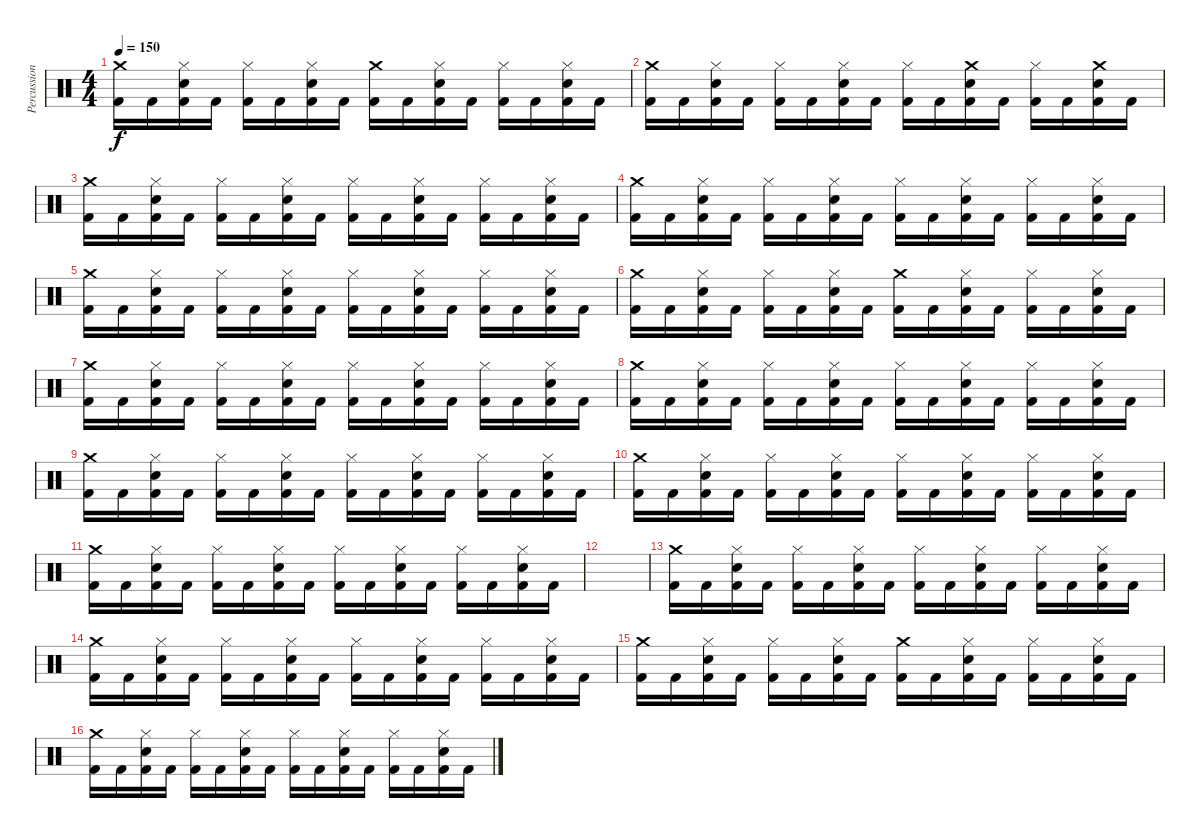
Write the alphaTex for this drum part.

\track ("Percussioni" "Percussion") {instrument percussion}
\staff {score}
\articulation defaults
\ts (4 4)
\tempo 150
\clef neutral
\ks c
("Crash medium (hit)" "Kick (hit) 2").16{dy f} "Kick (hit) 2".16 ("Hi-Hat (closed)" "Electric Snare (hit)" "Kick (hit) 2").16 "Kick (hit) 2".16 ("Hi-Hat (closed)" "Kick (hit) 2").16 "Kick (hit) 2".16 ("Hi-Hat (closed)" "Electric Snare (hit)" "Kick (hit) 2").16 "Kick (hit) 2".16 ("Crash medium (hit)" "Kick (hit) 2").16 "Kick (hit) 2".16 ("Hi-Hat (closed)" "Electric Snare (hit)" "Kick (hit) 2").16 "Kick (hit) 2".16 ("Hi-Hat (closed)" "Kick (hit) 2").16 "Kick (hit) 2".16 ("Hi-Hat (closed)" "Electric Snare (hit)" "Kick (hit) 2").16 "Kick (hit) 2".16 |
("Crash medium (hit)" "Kick (hit) 2").16 "Kick (hit) 2".16 ("Hi-Hat (closed)" "Electric Snare (hit)" "Kick (hit) 2").16 "Kick (hit) 2".16 ("Hi-Hat (closed)" "Kick (hit) 2").16 "Kick (hit) 2".16 ("Hi-Hat (closed)" "Electric Snare (hit)" "Kick (hit) 2").16 "Kick (hit) 2".16 ("Hi-Hat (closed)" "Kick (hit) 2").16 "Kick (hit) 2".16 ("Crash medium (hit)" "Electric Snare (hit)" "Kick (hit) 2").16 "Kick (hit) 2".16 ("Hi-Hat (closed)" "Kick (hit) 2").16 "Kick (hit) 2".16 ("Crash medium (hit)" "Electric Snare (hit)" "Kick (hit) 2").16 "Kick (hit) 2".16 |
("Crash medium (hit)" "Kick (hit) 2").16 "Kick (hit) 2".16 ("Hi-Hat (closed)" "Electric Snare (hit)" "Kick (hit) 2").16 "Kick (hit) 2".16 ("Hi-Hat (closed)" "Kick (hit) 2").16 "Kick (hit) 2".16 ("Hi-Hat (closed)" "Electric Snare (hit)" "Kick (hit) 2").16 "Kick (hit) 2".16 ("Hi-Hat (closed)" "Kick (hit) 2").16 "Kick (hit) 2".16 ("Hi-Hat (closed)" "Electric Snare (hit)" "Kick (hit) 2").16 "Kick (hit) 2".16 ("Hi-Hat (closed)" "Kick (hit) 2").16 "Kick (hit) 2".16 ("Hi-Hat (closed)" "Electric Snare (hit)" "Kick (hit) 2").16 "Kick (hit) 2".16 |
("Crash medium (hit)" "Kick (hit) 2").16 "Kick (hit) 2".16 ("Hi-Hat (closed)" "Electric Snare (hit)" "Kick (hit) 2").16 "Kick (hit) 2".16 ("Hi-Hat (closed)" "Kick (hit) 2").16 "Kick (hit) 2".16 ("Hi-Hat (closed)" "Electric Snare (hit)" "Kick (hit) 2").16 "Kick (hit) 2".16 ("Hi-Hat (closed)" "Kick (hit) 2").16 "Kick (hit) 2".16 ("Hi-Hat (closed)" "Electric Snare (hit)" "Kick (hit) 2").16 "Kick (hit) 2".16 ("Hi-Hat (closed)" "Kick (hit) 2").16 "Kick (hit) 2".16 ("Hi-Hat (closed)" "Electric Snare (hit)" "Kick (hit) 2").16 "Kick (hit) 2".16 |
("Crash medium (hit)" "Kick (hit) 2").16 "Kick (hit) 2".16 ("Hi-Hat (closed)" "Electric Snare (hit)" "Kick (hit) 2").16 "Kick (hit) 2".16 ("Hi-Hat (closed)" "Kick (hit) 2").16 "Kick (hit) 2".16 ("Hi-Hat (closed)" "Electric Snare (hit)" "Kick (hit) 2").16 "Kick (hit) 2".16 ("Hi-Hat (closed)" "Kick (hit) 2").16 "Kick (hit) 2".16 ("Hi-Hat (closed)" "Electric Snare (hit)" "Kick (hit) 2").16 "Kick (hit) 2".16 ("Hi-Hat (closed)" "Kick (hit) 2").16 "Kick (hit) 2".16 ("Hi-Hat (closed)" "Electric Snare (hit)" "Kick (hit) 2").16 "Kick (hit) 2".16 |
("Crash medium (hit)" "Kick (hit) 2").16 "Kick (hit) 2".16 ("Hi-Hat (closed)" "Electric Snare (hit)" "Kick (hit) 2").16 "Kick (hit) 2".16 ("Hi-Hat (closed)" "Kick (hit) 2").16 "Kick (hit) 2".16 ("Hi-Hat (closed)" "Electric Snare (hit)" "Kick (hit) 2").16 "Kick (hit) 2".16 ("Crash medium (hit)" "Kick (hit) 2").16 "Kick (hit) 2".16 ("Hi-Hat (closed)" "Electric Snare (hit)" "Kick (hit) 2").16 "Kick (hit) 2".16 ("Hi-Hat (closed)" "Kick (hit) 2").16 "Kick (hit) 2".16 ("Hi-Hat (closed)" "Electric Snare (hit)" "Kick (hit) 2").16 "Kick (hit) 2".16 |
("Crash medium (hit)" "Kick (hit) 2").16 "Kick (hit) 2".16 ("Hi-Hat (closed)" "Electric Snare (hit)" "Kick (hit) 2").16 "Kick (hit) 2".16 ("Hi-Hat (closed)" "Kick (hit) 2").16 "Kick (hit) 2".16 ("Hi-Hat (closed)" "Electric Snare (hit)" "Kick (hit) 2").16 "Kick (hit) 2".16 ("Hi-Hat (closed)" "Kick (hit) 2").16 "Kick (hit) 2".16 ("Hi-Hat (closed)" "Electric Snare (hit)" "Kick (hit) 2").16 "Kick (hit) 2".16 ("Hi-Hat (closed)" "Kick (hit) 2").16 "Kick (hit) 2".16 ("Hi-Hat (closed)" "Electric Snare (hit)" "Kick (hit) 2").16 "Kick (hit) 2".16 |
("Crash medium (hit)" "Kick (hit) 2").16 "Kick (hit) 2".16 ("Hi-Hat (closed)" "Electric Snare (hit)" "Kick (hit) 2").16 "Kick (hit) 2".16 ("Hi-Hat (closed)" "Kick (hit) 2").16 "Kick (hit) 2".16 ("Hi-Hat (closed)" "Electric Snare (hit)" "Kick (hit) 2").16 "Kick (hit) 2".16 ("Hi-Hat (closed)" "Kick (hit) 2").16 "Kick (hit) 2".16 ("Hi-Hat (closed)" "Electric Snare (hit)" "Kick (hit) 2").16 "Kick (hit) 2".16 ("Hi-Hat (closed)" "Kick (hit) 2").16 "Kick (hit) 2".16 ("Hi-Hat (closed)" "Electric Snare (hit)" "Kick (hit) 2").16 "Kick (hit) 2".16 |
("Crash medium (hit)" "Kick (hit) 2").16 "Kick (hit) 2".16 ("Hi-Hat (closed)" "Electric Snare (hit)" "Kick (hit) 2").16 "Kick (hit) 2".16 ("Hi-Hat (closed)" "Kick (hit) 2").16 "Kick (hit) 2".16 ("Hi-Hat (closed)" "Electric Snare (hit)" "Kick (hit) 2").16 "Kick (hit) 2".16 ("Hi-Hat (closed)" "Kick (hit) 2").16 "Kick (hit) 2".16 ("Hi-Hat (closed)" "Electric Snare (hit)" "Kick (hit) 2").16 "Kick (hit) 2".16 ("Hi-Hat (closed)" "Kick (hit) 2").16 "Kick (hit) 2".16 ("Hi-Hat (closed)" "Electric Snare (hit)" "Kick (hit) 2").16 "Kick (hit) 2".16 |
("Crash medium (hit)" "Kick (hit) 2").16 "Kick (hit) 2".16 ("Hi-Hat (closed)" "Electric Snare (hit)" "Kick (hit) 2").16 "Kick (hit) 2".16 ("Hi-Hat (closed)" "Kick (hit) 2").16 "Kick (hit) 2".16 ("Hi-Hat (closed)" "Electric Snare (hit)" "Kick (hit) 2").16 "Kick (hit) 2".16 ("Hi-Hat (closed)" "Kick (hit) 2").16 "Kick (hit) 2".16 ("Hi-Hat (closed)" "Electric Snare (hit)" "Kick (hit) 2").16 "Kick (hit) 2".16 ("Hi-Hat (closed)" "Kick (hit) 2").16 "Kick (hit) 2".16 ("Hi-Hat (closed)" "Electric Snare (hit)" "Kick (hit) 2").16 "Kick (hit) 2".16 |
("Crash medium (hit)" "Kick (hit) 2").16 "Kick (hit) 2".16 ("Hi-Hat (closed)" "Electric Snare (hit)" "Kick (hit) 2").16 "Kick (hit) 2".16 ("Hi-Hat (closed)" "Kick (hit) 2").16 "Kick (hit) 2".16 ("Hi-Hat (closed)" "Electric Snare (hit)" "Kick (hit) 2").16 "Kick (hit) 2".16 ("Hi-Hat (closed)" "Kick (hit) 2").16 "Kick (hit) 2".16 ("Hi-Hat (closed)" "Electric Snare (hit)" "Kick (hit) 2").16 "Kick (hit) 2".16 ("Hi-Hat (closed)" "Kick (hit) 2").16 "Kick (hit) 2".16 ("Hi-Hat (closed)" "Electric Snare (hit)" "Kick (hit) 2").16 "Kick (hit) 2".16 |
|
("Crash medium (hit)" "Kick (hit) 2").16 "Kick (hit) 2".16 ("Hi-Hat (closed)" "Electric Snare (hit)" "Kick (hit) 2").16 "Kick (hit) 2".16 ("Hi-Hat (closed)" "Kick (hit) 2").16 "Kick (hit) 2".16 ("Hi-Hat (closed)" "Electric Snare (hit)" "Kick (hit) 2").16 "Kick (hit) 2".16 ("Hi-Hat (closed)" "Kick (hit) 2").16 "Kick (hit) 2".16 ("Hi-Hat (closed)" "Electric Snare (hit)" "Kick (hit) 2").16 "Kick (hit) 2".16 ("Hi-Hat (closed)" "Kick (hit) 2").16 "Kick (hit) 2".16 ("Hi-Hat (closed)" "Electric Snare (hit)" "Kick (hit) 2").16 "Kick (hit) 2".16 |
("Crash medium (hit)" "Kick (hit) 2").16 "Kick (hit) 2".16 ("Hi-Hat (closed)" "Electric Snare (hit)" "Kick (hit) 2").16 "Kick (hit) 2".16 ("Hi-Hat (closed)" "Kick (hit) 2").16 "Kick (hit) 2".16 ("Hi-Hat (closed)" "Electric Snare (hit)" "Kick (hit) 2").16 "Kick (hit) 2".16 ("Hi-Hat (closed)" "Kick (hit) 2").16 "Kick (hit) 2".16 ("Hi-Hat (closed)" "Electric Snare (hit)" "Kick (hit) 2").16 "Kick (hit) 2".16 ("Hi-Hat (closed)" "Kick (hit) 2").16 "Kick (hit) 2".16 ("Hi-Hat (closed)" "Electric Snare (hit)" "Kick (hit) 2").16 "Kick (hit) 2".16 |
("Crash medium (hit)" "Kick (hit) 2").16 "Kick (hit) 2".16 ("Hi-Hat (closed)" "Electric Snare (hit)" "Kick (hit) 2").16 "Kick (hit) 2".16 ("Hi-Hat (closed)" "Kick (hit) 2").16 "Kick (hit) 2".16 ("Hi-Hat (closed)" "Electric Snare (hit)" "Kick (hit) 2").16 "Kick (hit) 2".16 ("Crash medium (hit)" "Kick (hit) 2").16 "Kick (hit) 2".16 ("Hi-Hat (closed)" "Electric Snare (hit)" "Kick (hit) 2").16 "Kick (hit) 2".16 ("Hi-Hat (closed)" "Kick (hit) 2").16 "Kick (hit) 2".16 ("Hi-Hat (closed)" "Electric Snare (hit)" "Kick (hit) 2").16 "Kick (hit) 2".16 |
("Crash medium (hit)" "Kick (hit) 2").16 "Kick (hit) 2".16 ("Hi-Hat (closed)" "Electric Snare (hit)" "Kick (hit) 2").16 "Kick (hit) 2".16 ("Hi-Hat (closed)" "Kick (hit) 2").16 "Kick (hit) 2".16 ("Hi-Hat (closed)" "Electric Snare (hit)" "Kick (hit) 2").16 "Kick (hit) 2".16 ("Hi-Hat (closed)" "Kick (hit) 2").16 "Kick (hit) 2".16 ("Hi-Hat (closed)" "Electric Snare (hit)" "Kick (hit) 2").16 "Kick (hit) 2".16 ("Hi-Hat (closed)" "Kick (hit) 2").16 "Kick (hit) 2".16 ("Hi-Hat (closed)" "Electric Snare (hit)" "Kick (hit) 2").16 "Kick (hit) 2".16
